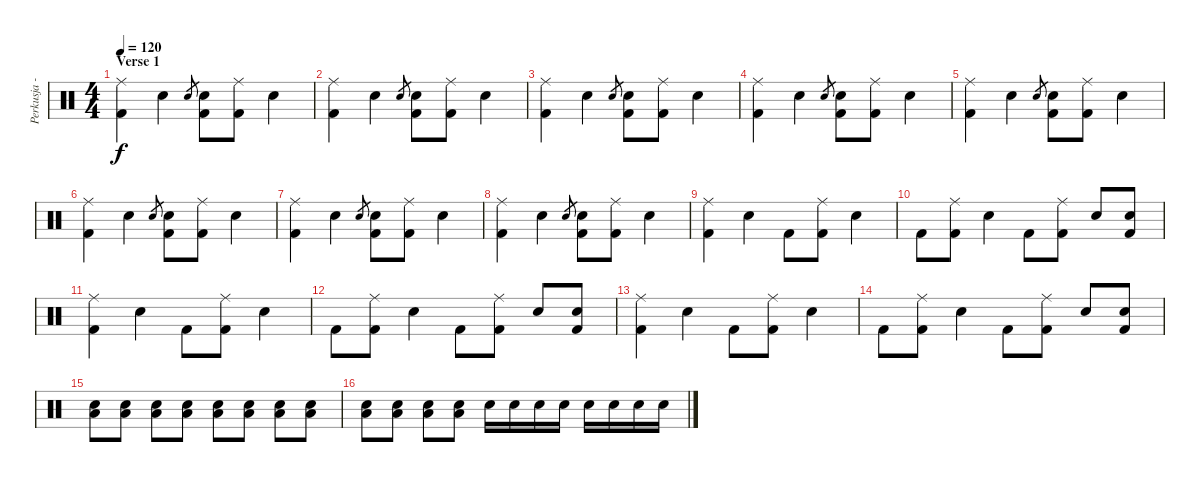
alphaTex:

\track ("Perkusja - Mielony" "Perkusja -") {instrument percussion}
\staff {score}
\articulation defaults
\ts (4 4)
\section ("" "Verse 1")
\tempo 120
\clef neutral
\ks c
("Ride (middle)" "Kick (hit) 2").4{dy f} "Snare (hit) 2".4 "Snare (hit) 2".8{gr} ("Snare (hit) 2" "Kick (hit) 2").8 ("Ride (middle)" "Kick (hit) 2").8 "Snare (hit) 2".4 |
("Ride (middle)" "Kick (hit) 2").4 "Snare (hit) 2".4 "Snare (hit) 2".8{gr} ("Snare (hit) 2" "Kick (hit) 2").8 ("Ride (middle)" "Kick (hit) 2").8 "Snare (hit) 2".4 |
("Ride (middle)" "Kick (hit) 2").4 "Snare (hit) 2".4 "Snare (hit) 2".8{gr} ("Snare (hit) 2" "Kick (hit) 2").8 ("Ride (middle)" "Kick (hit) 2").8 "Snare (hit) 2".4 |
("Ride (middle)" "Kick (hit) 2").4 "Snare (hit) 2".4 "Snare (hit) 2".8{gr} ("Snare (hit) 2" "Kick (hit) 2").8 ("Ride (middle)" "Kick (hit) 2").8 "Snare (hit) 2".4 |
("Ride (middle)" "Kick (hit) 2").4 "Snare (hit) 2".4 "Snare (hit) 2".8{gr} ("Snare (hit) 2" "Kick (hit) 2").8 ("Ride (middle)" "Kick (hit) 2").8 "Snare (hit) 2".4 |
("Ride (middle)" "Kick (hit) 2").4 "Snare (hit) 2".4 "Snare (hit) 2".8{gr} ("Snare (hit) 2" "Kick (hit) 2").8 ("Ride (middle)" "Kick (hit) 2").8 "Snare (hit) 2".4 |
("Ride (middle)" "Kick (hit) 2").4 "Snare (hit) 2".4 "Snare (hit) 2".8{gr} ("Snare (hit) 2" "Kick (hit) 2").8 ("Ride (middle)" "Kick (hit) 2").8 "Snare (hit) 2".4 |
("Ride (middle)" "Kick (hit) 2").4 "Snare (hit) 2".4 "Snare (hit) 2".8{gr} ("Snare (hit) 2" "Kick (hit) 2").8 ("Ride (middle)" "Kick (hit) 2").8 "Snare (hit) 2".4 |
("Ride (middle)" "Kick (hit) 2").4 "Snare (hit) 2".4 "Kick (hit) 2".8 ("Ride (middle)" "Kick (hit) 2").8 "Snare (hit) 2".4 |
"Kick (hit) 2".8 ("Ride (middle)" "Kick (hit) 2").8 "Snare (hit) 2".4 "Kick (hit) 2".8 ("Ride (middle)" "Kick (hit) 2").8 "Snare (hit) 2".8 ("Snare (hit) 2" "Kick (hit) 2").8 |
("Ride (middle)" "Kick (hit) 2").4 "Snare (hit) 2".4 "Kick (hit) 2".8 ("Ride (middle)" "Kick (hit) 2").8 "Snare (hit) 2".4 |
"Kick (hit) 2".8 ("Ride (middle)" "Kick (hit) 2").8 "Snare (hit) 2".4 "Kick (hit) 2".8 ("Ride (middle)" "Kick (hit) 2").8 "Snare (hit) 2".8 ("Snare (hit) 2" "Kick (hit) 2").8 |
("Ride (middle)" "Kick (hit) 2").4 "Snare (hit) 2".4 "Kick (hit) 2".8 ("Ride (middle)" "Kick (hit) 2").8 "Snare (hit) 2".4 |
"Kick (hit) 2".8 ("Ride (middle)" "Kick (hit) 2").8 "Snare (hit) 2".4 "Kick (hit) 2".8 ("Ride (middle)" "Kick (hit) 2").8 "Snare (hit) 2".8 ("Snare (hit) 2" "Kick (hit) 2").8 |
("Snare (hit) 2" "Low Tom (hit)").8 ("Snare (hit) 2" "Low Tom (hit)").8 ("Snare (hit) 2" "Low Tom (hit)").8 ("Snare (hit) 2" "Low Tom (hit)").8 ("Snare (hit) 2" "Low Tom (hit)").8 ("Snare (hit) 2" "Low Tom (hit)").8 ("Snare (hit) 2" "Low Tom (hit)").8 ("Snare (hit) 2" "Low Tom (hit)").8 |
("Snare (hit) 2" "Low Tom (hit)").8 ("Snare (hit) 2" "Low Tom (hit)").8 ("Snare (hit) 2" "Low Tom (hit)").8 ("Snare (hit) 2" "Low Tom (hit)").8 "Snare (hit) 2".16 "Snare (hit) 2".16 "Snare (hit) 2".16 "Snare (hit) 2".16 "Snare (hit) 2".16 "Snare (hit) 2".16 "Snare (hit) 2".16 "Snare (hit) 2".16
